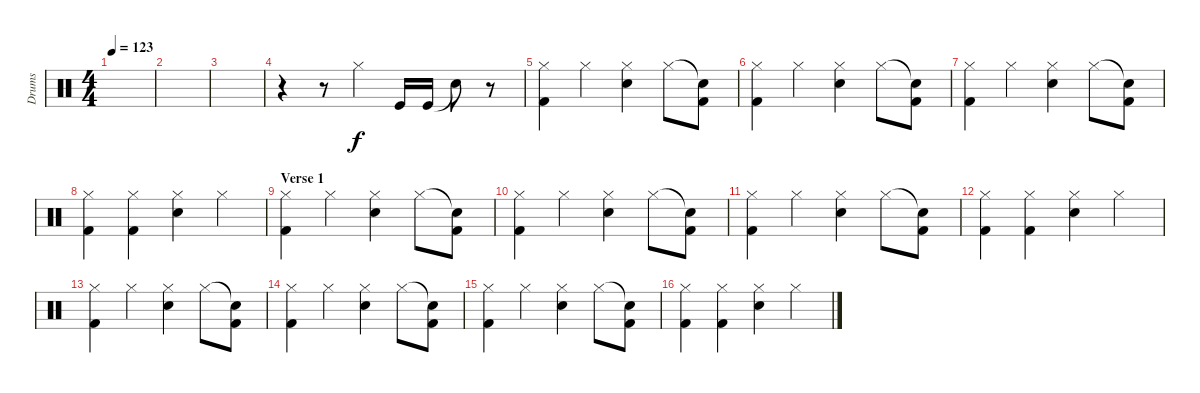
\track ("Drums" "Drums") {instrument percussion}
\staff {score}
\articulation defaults
\ts (4 4)
\tempo 123
\clef neutral
\ks c
|
|
|
r.4 r.8 "Hi-Hat (closed)".4 "Kick (hit)".16 "Kick (hit)".16 "Snare (hit)"{t}.8 r.8 |
("Hi-Hat (closed)" "Kick (hit) 2").4 "Hi-Hat (closed)".4 ("Hi-Hat (closed)" "Electric Snare (hit)").4 "Hi-Hat (closed)".8 ("Snare (hit)"{t} "Kick (hit) 2").8 |
("Hi-Hat (closed)" "Kick (hit) 2").4 "Hi-Hat (closed)".4 ("Hi-Hat (closed)" "Electric Snare (hit)").4 "Hi-Hat (closed)".8 ("Snare (hit)"{t} "Kick (hit) 2").8 |
("Hi-Hat (closed)" "Kick (hit) 2").4 "Hi-Hat (closed)".4 ("Hi-Hat (closed)" "Electric Snare (hit)").4 "Hi-Hat (closed)".8 ("Snare (hit)"{t} "Kick (hit) 2").8 |
("Hi-Hat (closed)" "Kick (hit) 2").4 ("Hi-Hat (closed)" "Kick (hit) 2").4 ("Hi-Hat (closed)" "Electric Snare (hit)").4 "Hi-Hat (closed)".4 |
\section ("" "Verse 1")
("Hi-Hat (closed)" "Kick (hit) 2").4 "Hi-Hat (closed)".4 ("Hi-Hat (closed)" "Electric Snare (hit)").4 "Hi-Hat (closed)".8 ("Snare (hit)"{t} "Kick (hit) 2").8 |
("Hi-Hat (closed)" "Kick (hit) 2").4 "Hi-Hat (closed)".4 ("Hi-Hat (closed)" "Electric Snare (hit)").4 "Hi-Hat (closed)".8 ("Snare (hit)"{t} "Kick (hit) 2").8 |
("Hi-Hat (closed)" "Kick (hit) 2").4 "Hi-Hat (closed)".4 ("Hi-Hat (closed)" "Electric Snare (hit)").4 "Hi-Hat (closed)".8 ("Snare (hit)"{t} "Kick (hit) 2").8 |
("Hi-Hat (closed)" "Kick (hit) 2").4 ("Hi-Hat (closed)" "Kick (hit) 2").4 ("Hi-Hat (closed)" "Electric Snare (hit)").4 "Hi-Hat (closed)".4 |
("Hi-Hat (closed)" "Kick (hit) 2").4 "Hi-Hat (closed)".4 ("Hi-Hat (closed)" "Electric Snare (hit)").4 "Hi-Hat (closed)".8 ("Snare (hit)"{t} "Kick (hit) 2").8 |
("Hi-Hat (closed)" "Kick (hit) 2").4 "Hi-Hat (closed)".4 ("Hi-Hat (closed)" "Electric Snare (hit)").4 "Hi-Hat (closed)".8 ("Snare (hit)"{t} "Kick (hit) 2").8 |
("Hi-Hat (closed)" "Kick (hit) 2").4 "Hi-Hat (closed)".4 ("Hi-Hat (closed)" "Electric Snare (hit)").4 "Hi-Hat (closed)".8 ("Snare (hit)"{t} "Kick (hit) 2").8 |
("Hi-Hat (closed)" "Kick (hit) 2").4 ("Hi-Hat (closed)" "Kick (hit) 2").4 ("Hi-Hat (closed)" "Electric Snare (hit)").4 "Hi-Hat (closed)".4
